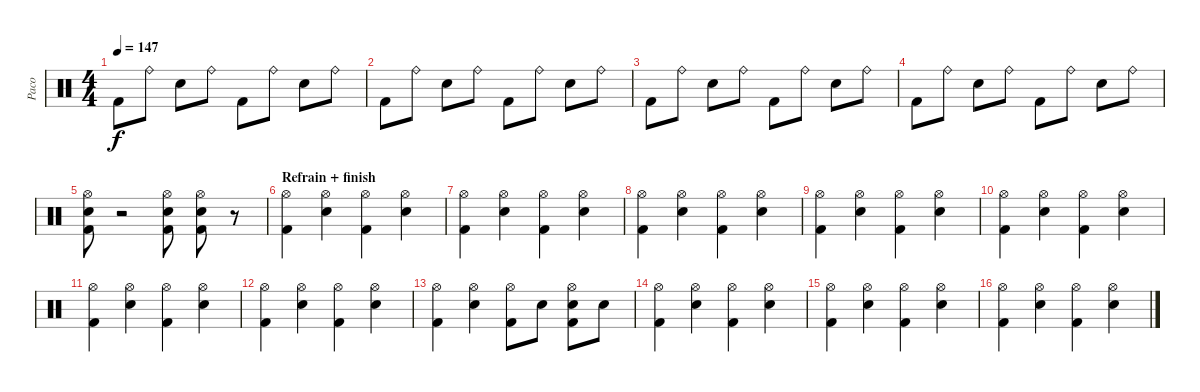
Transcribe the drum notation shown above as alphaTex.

\track ("Paco" "Paco") {instrument percussion}
\staff {score}
\articulation defaults
\ts (4 4)
\tempo 147
\clef neutral
\ks c "Kick (hit) 2".8{dy f} "Ride (bell)".8 "Snare (hit) 2".8 "Ride (bell)".8 "Kick (hit) 2".8 "Ride (bell)".8 "Snare (hit) 2".8 "Ride (bell)".8
|
"Kick (hit) 2".8 "Ride (bell)".8 "Snare (hit) 2".8 "Ride (bell)".8 "Kick (hit) 2".8 "Ride (bell)".8 "Snare (hit) 2".8 "Ride (bell)".8 |
"Kick (hit) 2".8 "Ride (bell)".8 "Snare (hit) 2".8 "Ride (bell)".8 "Kick (hit) 2".8 "Ride (bell)".8 "Snare (hit) 2".8 "Ride (bell)".8 |
"Kick (hit) 2".8 "Ride (bell)".8 "Snare (hit) 2".8 "Ride (bell)".8 "Kick (hit) 2".8 "Ride (bell)".8 "Snare (hit) 2".8 "Ride (bell)".8 |
("Hi-Hat (open)" "Snare (hit) 2" "Kick (hit) 2").8 r.2 ("Hi-Hat (open)" "Snare (hit) 2" "Kick (hit) 2").8 ("Hi-Hat (open)" "Snare (hit) 2" "Kick (hit) 2").8 r.8 |
\section ("" "Refrain + finish")
("Hi-Hat (open)" "Kick (hit) 2").4 ("Hi-Hat (open)" "Snare (hit) 2").4 ("Hi-Hat (open)" "Kick (hit) 2").4 ("Hi-Hat (open)" "Snare (hit) 2").4 |
("Hi-Hat (open)" "Kick (hit) 2").4 ("Hi-Hat (open)" "Snare (hit) 2").4 ("Hi-Hat (open)" "Kick (hit) 2").4 ("Hi-Hat (open)" "Snare (hit) 2").4 |
("Hi-Hat (open)" "Kick (hit) 2").4 ("Hi-Hat (open)" "Snare (hit) 2").4 ("Hi-Hat (open)" "Kick (hit) 2").4 ("Hi-Hat (open)" "Snare (hit) 2").4 |
("Hi-Hat (open)" "Kick (hit) 2").4 ("Hi-Hat (open)" "Snare (hit) 2").4 ("Hi-Hat (open)" "Kick (hit) 2").4 ("Hi-Hat (open)" "Snare (hit) 2").4 |
("Hi-Hat (open)" "Kick (hit) 2").4 ("Hi-Hat (open)" "Snare (hit) 2").4 ("Hi-Hat (open)" "Kick (hit) 2").4 ("Hi-Hat (open)" "Snare (hit) 2").4 |
("Hi-Hat (open)" "Kick (hit) 2").4 ("Hi-Hat (open)" "Snare (hit) 2").4 ("Hi-Hat (open)" "Kick (hit) 2").4 ("Hi-Hat (open)" "Snare (hit) 2").4 |
("Hi-Hat (open)" "Kick (hit) 2").4 ("Hi-Hat (open)" "Snare (hit) 2").4 ("Hi-Hat (open)" "Kick (hit) 2").4 ("Hi-Hat (open)" "Snare (hit) 2").4 |
("Hi-Hat (open)" "Kick (hit) 2").4 ("Hi-Hat (open)" "Snare (hit) 2").4 ("Hi-Hat (open)" "Kick (hit) 2").8 "Snare (hit) 2".8 ("Hi-Hat (open)" "Snare (hit) 2" "Kick (hit) 2").8 "Snare (hit) 2".8 |
("Hi-Hat (open)" "Kick (hit) 2").4 ("Hi-Hat (open)" "Snare (hit) 2").4 ("Hi-Hat (open)" "Kick (hit) 2").4 ("Hi-Hat (open)" "Snare (hit) 2").4 |
("Hi-Hat (open)" "Kick (hit) 2").4 ("Hi-Hat (open)" "Snare (hit) 2").4 ("Hi-Hat (open)" "Kick (hit) 2").4 ("Hi-Hat (open)" "Snare (hit) 2").4 |
("Hi-Hat (open)" "Kick (hit) 2").4 ("Hi-Hat (open)" "Snare (hit) 2").4 ("Hi-Hat (open)" "Kick (hit) 2").4 ("Hi-Hat (open)" "Snare (hit) 2").4
